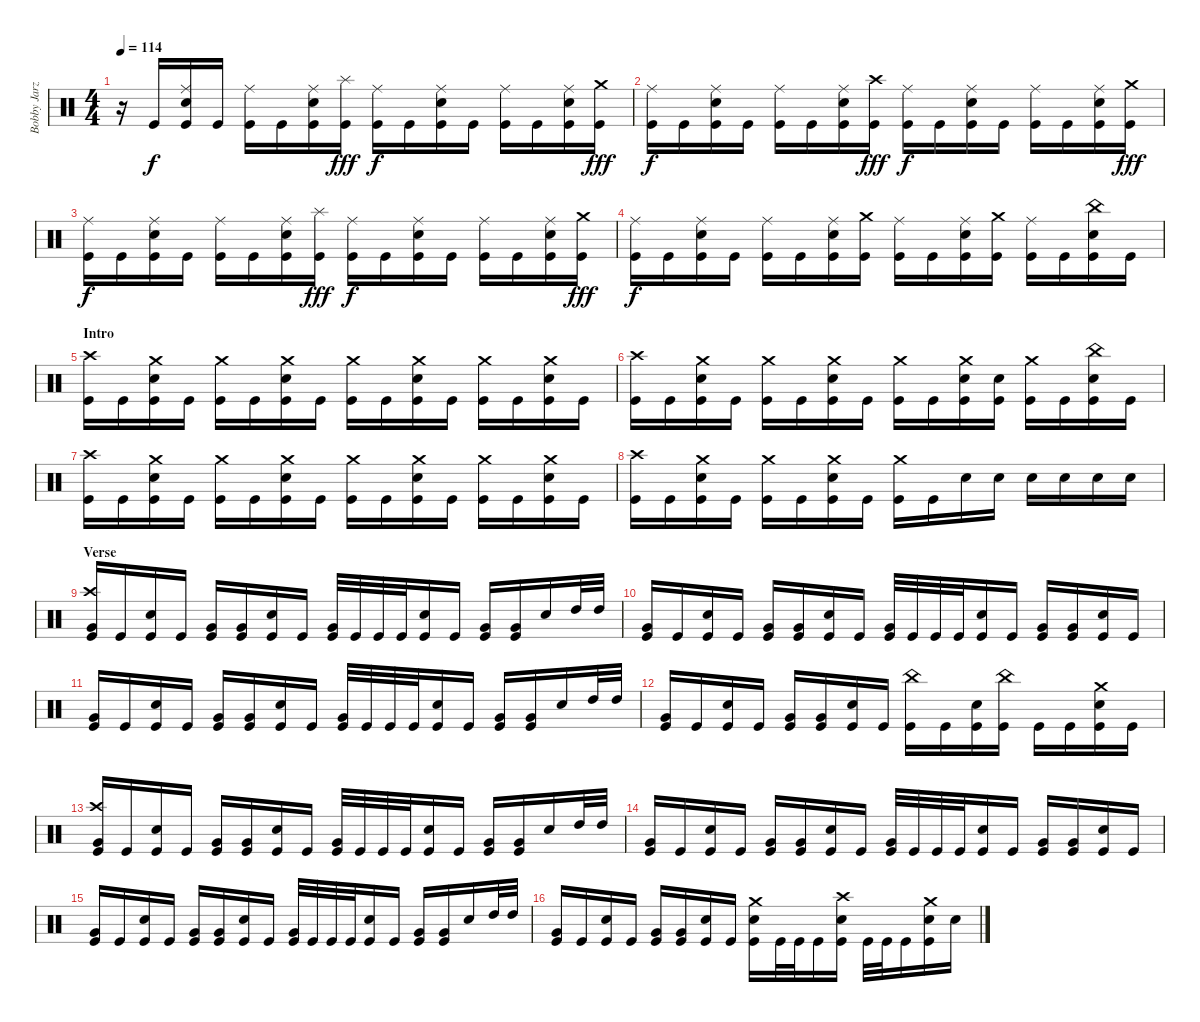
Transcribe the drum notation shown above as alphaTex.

\track ("Bobby Jarzombek" "Bobby Jarz") {instrument percussion}
\staff {score}
\articulation defaults
\ts (4 4)
\tempo 114
\clef neutral
\ks c
r.16{dy fff} "Kick (hit)".16{dy f} ("Ride (middle)" "Electric Snare (hit)" "Kick (hit)").16 "Kick (hit)".16 ("Ride (middle)" "Kick (hit)").16 "Kick (hit)".16 ("Ride (middle)" "Electric Snare (hit)" "Kick (hit)").16 ("Splash (hit)" "Kick (hit)").16{dy fff} ("Ride (middle)" "Kick (hit)").16{dy f} "Kick (hit)".16 ("Ride (middle)" "Electric Snare (hit)" "Kick (hit)").16 "Kick (hit)".16 ("Ride (middle)" "Kick (hit)").16 "Kick (hit)".16 ("Ride (middle)" "Electric Snare (hit)" "Kick (hit)").16 ("Crash medium (hit)" "Kick (hit)").16{dy fff} |
("Ride (middle)" "Kick (hit)").16{dy f} "Kick (hit)".16 ("Ride (middle)" "Electric Snare (hit)" "Kick (hit)").16 "Kick (hit)".16 ("Ride (middle)" "Kick (hit)").16 "Kick (hit)".16 ("Ride (middle)" "Electric Snare (hit)" "Kick (hit)").16 ("Crash high (hit)" "Kick (hit)").16{dy fff} ("Ride (middle)" "Kick (hit)").16{dy f} "Kick (hit)".16 ("Ride (middle)" "Electric Snare (hit)" "Kick (hit)").16 "Kick (hit)".16 ("Ride (middle)" "Kick (hit)").16 "Kick (hit)".16 ("Ride (middle)" "Electric Snare (hit)" "Kick (hit)").16 ("Crash medium (hit)" "Kick (hit)").16{dy fff} |
("Ride (middle)" "Kick (hit)").16{dy f} "Kick (hit)".16 ("Ride (middle)" "Electric Snare (hit)" "Kick (hit)").16 "Kick (hit)".16 ("Ride (middle)" "Kick (hit)").16 "Kick (hit)".16 ("Ride (middle)" "Electric Snare (hit)" "Kick (hit)").16 ("Splash (hit)" "Kick (hit)").16{dy fff} ("Ride (middle)" "Kick (hit)").16{dy f} "Kick (hit)".16 ("Ride (middle)" "Electric Snare (hit)" "Kick (hit)").16 "Kick (hit)".16 ("Ride (middle)" "Kick (hit)").16 "Kick (hit)".16 ("Ride (middle)" "Electric Snare (hit)" "Kick (hit)").16 ("Crash medium (hit)" "Kick (hit)").16{dy fff} |
("Ride (middle)" "Kick (hit)").16{dy f} "Kick (hit)".16 ("Ride (middle)" "Electric Snare (hit)" "Kick (hit)").16 "Kick (hit)".16 ("Ride (middle)" "Kick (hit)").16 "Kick (hit)".16 ("Ride (middle)" "Electric Snare (hit)" "Kick (hit)").16 ("Crash medium (hit)" "Kick (hit)").16 ("Ride (middle)" "Kick (hit)").16 "Kick (hit)".16 ("Ride (middle)" "Electric Snare (hit)" "Kick (hit)").16 ("Crash medium (hit)" "Kick (hit)").16 ("Ride (middle)" "Kick (hit)").16 "Kick (hit)".16 ("China (hit)" "Electric Snare (hit)" "Kick (hit)").16 "Kick (hit)".16 |
\section ("" "Intro")
("Crash high (hit)" "Kick (hit)").16 "Kick (hit)".16 ("Crash medium (hit)" "Electric Snare (hit)" "Kick (hit)").16 "Kick (hit)".16 ("Crash medium (hit)" "Kick (hit)").16 "Kick (hit)".16 ("Crash medium (hit)" "Electric Snare (hit)" "Kick (hit)").16 "Kick (hit)".16 ("Crash medium (hit)" "Kick (hit)").16 "Kick (hit)".16 ("Crash medium (hit)" "Electric Snare (hit)" "Kick (hit)").16 "Kick (hit)".16 ("Crash medium (hit)" "Kick (hit)").16 "Kick (hit)".16 ("Crash medium (hit)" "Electric Snare (hit)" "Kick (hit)").16 "Kick (hit)".16 |
("Crash high (hit)" "Kick (hit)").16 "Kick (hit)".16 ("Crash medium (hit)" "Electric Snare (hit)" "Kick (hit)").16 "Kick (hit)".16 ("Crash medium (hit)" "Kick (hit)").16 "Kick (hit)".16 ("Crash medium (hit)" "Electric Snare (hit)" "Kick (hit)").16 "Kick (hit)".16 ("Crash medium (hit)" "Kick (hit)").16 "Kick (hit)".16 ("Crash medium (hit)" "Electric Snare (hit)" "Kick (hit)").16 ("Electric Snare (hit)" "Kick (hit)").16 ("Crash medium (hit)" "Kick (hit)").16 "Kick (hit)".16 ("China (hit)" "Electric Snare (hit)" "Kick (hit)").16 "Kick (hit)".16 |
("Crash high (hit)" "Kick (hit)").16 "Kick (hit)".16 ("Crash medium (hit)" "Electric Snare (hit)" "Kick (hit)").16 "Kick (hit)".16 ("Crash medium (hit)" "Kick (hit)").16 "Kick (hit)".16 ("Crash medium (hit)" "Electric Snare (hit)" "Kick (hit)").16 "Kick (hit)".16 ("Crash medium (hit)" "Kick (hit)").16 "Kick (hit)".16 ("Crash medium (hit)" "Electric Snare (hit)" "Kick (hit)").16 "Kick (hit)".16 ("Crash medium (hit)" "Kick (hit)").16 "Kick (hit)".16 ("Crash medium (hit)" "Electric Snare (hit)" "Kick (hit)").16 "Kick (hit)".16 |
("Crash high (hit)" "Kick (hit)").16 "Kick (hit)".16 ("Crash medium (hit)" "Electric Snare (hit)" "Kick (hit)").16 "Kick (hit)".16 ("Crash medium (hit)" "Kick (hit)").16 "Kick (hit)".16 ("Crash medium (hit)" "Electric Snare (hit)" "Kick (hit)").16 "Kick (hit)".16 ("Crash medium (hit)" "Kick (hit)").16 "Kick (hit)".16 "Electric Snare (hit)".16 "Electric Snare (hit)".16 "Electric Snare (hit)".16 "Electric Snare (hit)".16 "Electric Snare (hit)".16 "Electric Snare (hit)".16 |
\section ("" "Verse")
("Crash high (hit)" "Very Low Tom (hit)" "Kick (hit)").16 "Kick (hit)".16 ("Electric Snare (hit)" "Kick (hit)").16 "Kick (hit)".16 ("Very Low Tom (hit)" "Kick (hit)").16 ("Very Low Tom (hit)" "Kick (hit)").16 ("Electric Snare (hit)" "Kick (hit)").16 "Kick (hit)".16 ("Very Low Tom (hit)" "Kick (hit)").32 "Kick (hit)".32 "Kick (hit)".32 "Kick (hit)".32 ("Electric Snare (hit)" "Kick (hit)").16 "Kick (hit)".16 ("Very Low Tom (hit)" "Kick (hit)").16 ("Very Low Tom (hit)" "Kick (hit)").16 "Electric Snare (hit)".16 "High Tom (hit)".32 "High Tom (hit)".32 |
("Very Low Tom (hit)" "Kick (hit)").16 "Kick (hit)".16 ("Electric Snare (hit)" "Kick (hit)").16 "Kick (hit)".16 ("Very Low Tom (hit)" "Kick (hit)").16 ("Very Low Tom (hit)" "Kick (hit)").16 ("Electric Snare (hit)" "Kick (hit)").16 "Kick (hit)".16 ("Very Low Tom (hit)" "Kick (hit)").32 "Kick (hit)".32 "Kick (hit)".32 "Kick (hit)".32 ("Electric Snare (hit)" "Kick (hit)").16 "Kick (hit)".16 ("Very Low Tom (hit)" "Kick (hit)").16 ("Very Low Tom (hit)" "Kick (hit)").16 ("Electric Snare (hit)" "Kick (hit)").16 "Kick (hit)".16 |
("Very Low Tom (hit)" "Kick (hit)").16 "Kick (hit)".16 ("Electric Snare (hit)" "Kick (hit)").16 "Kick (hit)".16 ("Very Low Tom (hit)" "Kick (hit)").16 ("Very Low Tom (hit)" "Kick (hit)").16 ("Electric Snare (hit)" "Kick (hit)").16 "Kick (hit)".16 ("Very Low Tom (hit)" "Kick (hit)").32 "Kick (hit)".32 "Kick (hit)".32 "Kick (hit)".32 ("Electric Snare (hit)" "Kick (hit)").16 "Kick (hit)".16 ("Very Low Tom (hit)" "Kick (hit)").16 ("Very Low Tom (hit)" "Kick (hit)").16 "Electric Snare (hit)".16 "High Tom (hit)".32 "High Tom (hit)".32 |
("Very Low Tom (hit)" "Kick (hit)").16 "Kick (hit)".16 ("Electric Snare (hit)" "Kick (hit)").16 "Kick (hit)".16 ("Very Low Tom (hit)" "Kick (hit)").16 ("Very Low Tom (hit)" "Kick (hit)").16 ("Electric Snare (hit)" "Kick (hit)").16 "Kick (hit)".16 ("China (hit)" "Kick (hit)").16 "Kick (hit)".16 ("Electric Snare (hit)" "Kick (hit)").16 ("China (hit)" "Kick (hit)").16 "Kick (hit)".16 "Kick (hit)".16 ("Crash medium (hit)" "Electric Snare (hit)" "Kick (hit)").16 "Kick (hit)".16 |
("Crash high (hit)" "Very Low Tom (hit)" "Kick (hit)").16 "Kick (hit)".16 ("Electric Snare (hit)" "Kick (hit)").16 "Kick (hit)".16 ("Very Low Tom (hit)" "Kick (hit)").16 ("Very Low Tom (hit)" "Kick (hit)").16 ("Electric Snare (hit)" "Kick (hit)").16 "Kick (hit)".16 ("Very Low Tom (hit)" "Kick (hit)").32 "Kick (hit)".32 "Kick (hit)".32 "Kick (hit)".32 ("Electric Snare (hit)" "Kick (hit)").16 "Kick (hit)".16 ("Very Low Tom (hit)" "Kick (hit)").16 ("Very Low Tom (hit)" "Kick (hit)").16 "Electric Snare (hit)".16 "High Tom (hit)".32 "High Tom (hit)".32 |
("Very Low Tom (hit)" "Kick (hit)").16 "Kick (hit)".16 ("Electric Snare (hit)" "Kick (hit)").16 "Kick (hit)".16 ("Very Low Tom (hit)" "Kick (hit)").16 ("Very Low Tom (hit)" "Kick (hit)").16 ("Electric Snare (hit)" "Kick (hit)").16 "Kick (hit)".16 ("Very Low Tom (hit)" "Kick (hit)").32 "Kick (hit)".32 "Kick (hit)".32 "Kick (hit)".32 ("Electric Snare (hit)" "Kick (hit)").16 "Kick (hit)".16 ("Very Low Tom (hit)" "Kick (hit)").16 ("Very Low Tom (hit)" "Kick (hit)").16 ("Electric Snare (hit)" "Kick (hit)").16 "Kick (hit)".16 |
("Very Low Tom (hit)" "Kick (hit)").16 "Kick (hit)".16 ("Electric Snare (hit)" "Kick (hit)").16 "Kick (hit)".16 ("Very Low Tom (hit)" "Kick (hit)").16 ("Very Low Tom (hit)" "Kick (hit)").16 ("Electric Snare (hit)" "Kick (hit)").16 "Kick (hit)".16 ("Very Low Tom (hit)" "Kick (hit)").32 "Kick (hit)".32 "Kick (hit)".32 "Kick (hit)".32 ("Electric Snare (hit)" "Kick (hit)").16 "Kick (hit)".16 ("Very Low Tom (hit)" "Kick (hit)").16 ("Very Low Tom (hit)" "Kick (hit)").16 "Electric Snare (hit)".16 "High Tom (hit)".32 "High Tom (hit)".32 |
("Very Low Tom (hit)" "Kick (hit)").16 "Kick (hit)".16 ("Electric Snare (hit)" "Kick (hit)").16 "Kick (hit)".16 ("Very Low Tom (hit)" "Kick (hit)").16 ("Very Low Tom (hit)" "Kick (hit)").16 ("Electric Snare (hit)" "Kick (hit)").16 "Kick (hit)".16 ("Crash medium (hit)" "Electric Snare (hit)" "Kick (hit)").16 "Kick (hit)".32 "Kick (hit)".32 "Kick (hit)".16 ("Crash high (hit)" "Electric Snare (hit)" "Kick (hit)").16 "Kick (hit)".32 "Kick (hit)".32 "Kick (hit)".16 ("Crash medium (hit)" "Electric Snare (hit)" "Kick (hit)").16 "Electric Snare (hit)".16
